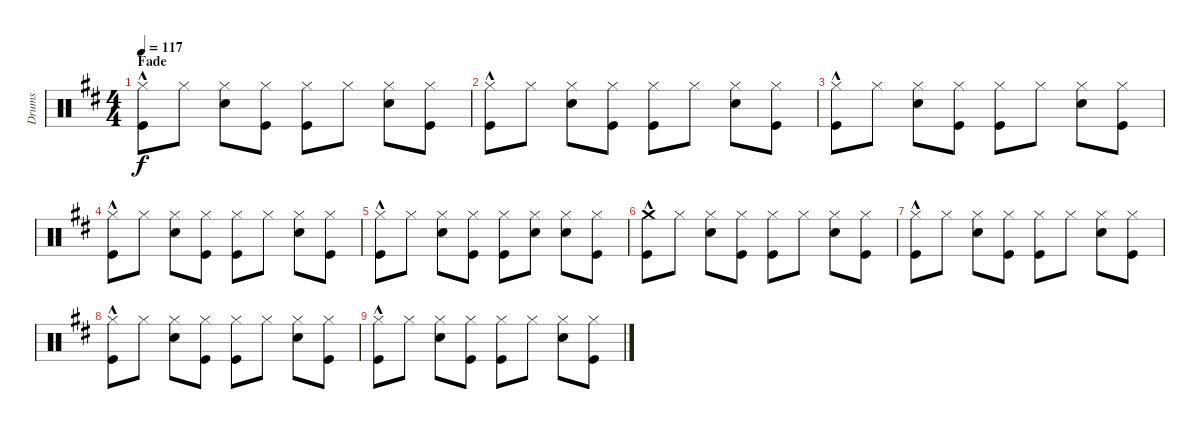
\track ("Drums" "Drums") {instrument percussion}
\staff {score}
\articulation defaults
\ts (4 4)
\section ("" "Fade")
\tempo 117
\clef neutral
\ks d
("Hi-Hat (closed)"{hac} "Kick (hit)").8{dy f volume 13} "Hi-Hat (closed)".8 ("Hi-Hat (closed)" "Snare (hit) 2").8 ("Hi-Hat (closed)" "Kick (hit)").8 ("Hi-Hat (closed)" "Kick (hit)").8 "Hi-Hat (closed)".8 ("Hi-Hat (closed)" "Snare (hit) 2").8 ("Hi-Hat (closed)" "Kick (hit)").8 |
("Hi-Hat (closed)"{hac} "Kick (hit)").8 "Hi-Hat (closed)".8 ("Hi-Hat (closed)" "Snare (hit) 2").8 ("Hi-Hat (closed)" "Kick (hit)").8 ("Hi-Hat (closed)" "Kick (hit)").8 "Hi-Hat (closed)".8 ("Hi-Hat (closed)" "Snare (hit) 2").8 ("Hi-Hat (closed)" "Kick (hit)").8 |
("Hi-Hat (closed)"{hac} "Kick (hit)").8{volume 11} "Hi-Hat (closed)".8 ("Hi-Hat (closed)" "Snare (hit) 2").8 ("Hi-Hat (closed)" "Kick (hit)").8 ("Hi-Hat (closed)" "Kick (hit)").8 "Hi-Hat (closed)".8 ("Hi-Hat (closed)" "Snare (hit) 2").8 ("Hi-Hat (closed)" "Kick (hit)").8 |
("Hi-Hat (closed)"{hac} "Kick (hit)").8{volume 8} "Hi-Hat (closed)".8 ("Hi-Hat (closed)" "Snare (hit) 2").8 ("Hi-Hat (closed)" "Kick (hit)").8 ("Hi-Hat (closed)" "Kick (hit)").8 "Hi-Hat (closed)".8 ("Hi-Hat (closed)" "Snare (hit) 2").8 ("Hi-Hat (closed)" "Kick (hit)").8 |
("Hi-Hat (closed)"{hac} "Kick (hit)").8 "Hi-Hat (closed)".8 ("Hi-Hat (closed)" "Snare (hit) 2").8 ("Hi-Hat (closed)" "Kick (hit)").8 ("Hi-Hat (closed)" "Kick (hit)").8 ("Hi-Hat (closed)" "Snare (hit) 2").8 ("Hi-Hat (closed)" "Snare (hit) 2").8 ("Hi-Hat (closed)" "Kick (hit)").8 |
("Crash medium (hit)"{hac} "Kick (hit)").8{volume 6} "Hi-Hat (closed)".8 ("Hi-Hat (closed)" "Snare (hit) 2").8 ("Hi-Hat (closed)" "Kick (hit)").8 ("Hi-Hat (closed)" "Kick (hit)").8 "Hi-Hat (closed)".8 ("Hi-Hat (closed)" "Snare (hit) 2").8 ("Hi-Hat (closed)" "Kick (hit)").8 |
("Hi-Hat (closed)"{hac} "Kick (hit)").8 "Hi-Hat (closed)".8 ("Hi-Hat (closed)" "Snare (hit) 2").8 ("Hi-Hat (closed)" "Kick (hit)").8 ("Hi-Hat (closed)" "Kick (hit)").8 "Hi-Hat (closed)".8 ("Hi-Hat (closed)" "Snare (hit) 2").8 ("Hi-Hat (closed)" "Kick (hit)").8 |
("Hi-Hat (closed)"{hac} "Kick (hit)").8{volume 3} "Hi-Hat (closed)".8 ("Hi-Hat (closed)" "Snare (hit) 2").8 ("Hi-Hat (closed)" "Kick (hit)").8 ("Hi-Hat (closed)" "Kick (hit)").8 "Hi-Hat (closed)".8 ("Hi-Hat (closed)" "Snare (hit) 2").8 ("Hi-Hat (closed)" "Kick (hit)").8 |
("Hi-Hat (closed)"{hac} "Kick (hit)").8 "Hi-Hat (closed)".8 ("Hi-Hat (closed)" "Snare (hit) 2").8 ("Hi-Hat (closed)" "Kick (hit)").8 ("Hi-Hat (closed)" "Kick (hit)").8 "Hi-Hat (closed)".8 ("Hi-Hat (closed)" "Snare (hit) 2").8 ("Hi-Hat (closed)" "Kick (hit)").8
